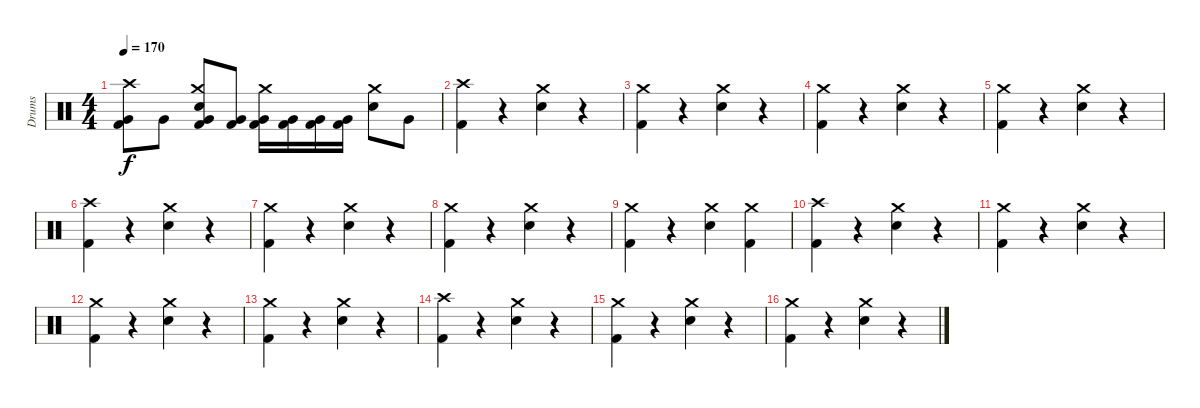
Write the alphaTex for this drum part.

\track ("Drums" "Drums") {instrument percussion}
\staff {score}
\articulation defaults
\ts (4 4)
\tempo 170
\clef neutral
\ks c
("Crash high (hit)" "Very Low Tom (hit)" "Kick (hit) 2").8{dy f} "Very Low Tom (hit)".8 ("Crash medium (hit)" "Snare (hit) 2" "Very Low Tom (hit)" "Kick (hit) 2").8 ("Very Low Tom (hit)" "Kick (hit) 2").8 ("Crash medium (hit)" "Very Low Tom (hit)" "Kick (hit) 2").16 ("Very Low Tom (hit)" "Kick (hit) 2").16 ("Very Low Tom (hit)" "Kick (hit) 2").16 ("Very Low Tom (hit)" "Kick (hit) 2").16 ("Crash medium (hit)" "Snare (hit) 2").8 "Very Low Tom (hit)".8 |
("Crash high (hit)" "Kick (hit) 2").4 r.4 ("Crash medium (hit)" "Snare (hit) 2").4 r.4 |
("Crash medium (hit)" "Kick (hit) 2").4 r.4 ("Crash medium (hit)" "Snare (hit) 2").4 r.4 |
("Crash medium (hit)" "Kick (hit) 2").4 r.4 ("Crash medium (hit)" "Snare (hit) 2").4 r.4 |
("Crash medium (hit)" "Kick (hit) 2").4 r.4 ("Crash medium (hit)" "Snare (hit) 2").4 r.4 |
("Crash high (hit)" "Kick (hit) 2").4 r.4 ("Crash medium (hit)" "Snare (hit) 2").4 r.4 |
("Crash medium (hit)" "Kick (hit) 2").4 r.4 ("Crash medium (hit)" "Snare (hit) 2").4 r.4 |
("Crash medium (hit)" "Kick (hit) 2").4 r.4 ("Crash medium (hit)" "Snare (hit) 2").4 r.4 |
("Crash medium (hit)" "Kick (hit) 2").4 r.4 ("Crash medium (hit)" "Snare (hit) 2").4 ("Crash medium (hit)" "Kick (hit) 2").4 |
("Crash high (hit)" "Kick (hit) 2").4 r.4 ("Crash medium (hit)" "Snare (hit) 2").4 r.4 |
("Crash medium (hit)" "Kick (hit) 2").4 r.4 ("Crash medium (hit)" "Snare (hit) 2").4 r.4 |
("Crash medium (hit)" "Kick (hit) 2").4 r.4 ("Crash medium (hit)" "Snare (hit) 2").4 r.4 |
("Crash medium (hit)" "Kick (hit) 2").4 r.4 ("Crash medium (hit)" "Snare (hit) 2").4 r.4 |
("Crash high (hit)" "Kick (hit) 2").4 r.4 ("Crash medium (hit)" "Snare (hit) 2").4 r.4 |
("Crash medium (hit)" "Kick (hit) 2").4 r.4 ("Crash medium (hit)" "Snare (hit) 2").4 r.4 |
("Crash medium (hit)" "Kick (hit) 2").4 r.4 ("Crash medium (hit)" "Snare (hit) 2").4 r.4
